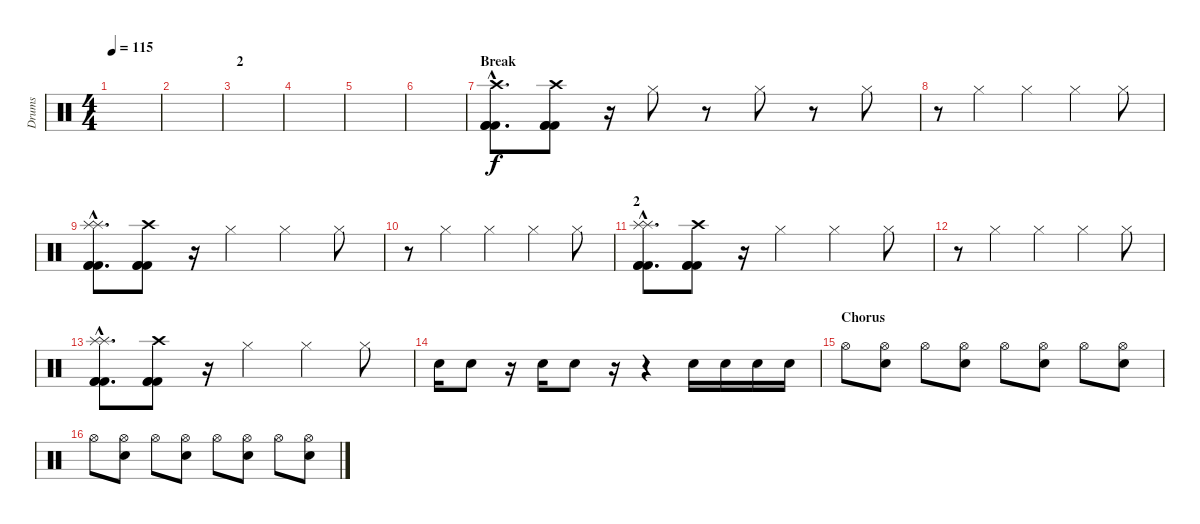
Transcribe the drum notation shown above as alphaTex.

\track ("Drums" "Drums") {instrument percussion}
\staff {score}
\articulation defaults
\ts (4 4)
\tempo 115
\clef neutral
\ks c
|
|
\section ("" "2")
|
|
|
|
\section ("" "Break")
("Crash high (hit)"{hac} "Kick (hit) 2"{hac} "Kick (hit) 2"{hac} "Kick (hit) 2"{hac}).8{d} ("Crash high (hit)" "Kick (hit) 2" "Kick (hit) 2" "Kick (hit) 2").8 r.16 "Hi-Hat (closed)".8 r.8 "Hi-Hat (closed)".8 r.8 "Hi-Hat (closed)".8 |
r.8 "Hi-Hat (closed)".4 "Hi-Hat (closed)".4 "Hi-Hat (closed)".4 "Hi-Hat (closed)".8 |
("Splash (hit)"{hac} "Splash (hit)"{hac} "Kick (hit) 2"{hac} "Kick (hit) 2"{hac} "Kick (hit) 2"{hac}).8{d} ("Crash high (hit)" "Kick (hit) 2" "Kick (hit) 2" "Kick (hit) 2").8 r.16 "Hi-Hat (closed)".4 "Hi-Hat (closed)".4 "Hi-Hat (closed)".8 |
r.8 "Hi-Hat (closed)".4 "Hi-Hat (closed)".4 "Hi-Hat (closed)".4 "Hi-Hat (closed)".8 |
\section ("" "2")
("Splash (hit)"{hac} "Splash (hit)"{hac} "Kick (hit) 2"{hac} "Kick (hit) 2"{hac} "Kick (hit) 2"{hac}).8{d} ("Crash high (hit)" "Kick (hit) 2" "Kick (hit) 2" "Kick (hit) 2").8 r.16 "Hi-Hat (closed)".4 "Hi-Hat (closed)".4 "Hi-Hat (closed)".8 |
r.8 "Hi-Hat (closed)".4 "Hi-Hat (closed)".4 "Hi-Hat (closed)".4 "Hi-Hat (closed)".8 |
("Splash (hit)"{hac} "Splash (hit)"{hac} "Kick (hit) 2"{hac} "Kick (hit) 2"{hac} "Kick (hit) 2"{hac}).8{d} ("Crash high (hit)" "Kick (hit) 2" "Kick (hit) 2" "Kick (hit) 2").8 r.16 "Hi-Hat (closed)".4 "Hi-Hat (closed)".4 "Hi-Hat (closed)".8 |
"Snare (hit) 2".16 "Snare (hit) 2".8 r.16 "Snare (hit) 2".16 "Snare (hit) 2".8 r.16 r.4 "Snare (hit) 2".16 "Snare (hit) 2".16 "Snare (hit) 2".16 "Snare (hit) 2".16 |
\section ("" "Chorus")
"Hi-Hat (open)".8 ("Hi-Hat (open)" "Snare (hit) 2").8 "Hi-Hat (open)".8 ("Hi-Hat (open)" "Snare (hit) 2").8 "Hi-Hat (open)".8 ("Hi-Hat (open)" "Snare (hit) 2").8 "Hi-Hat (open)".8 ("Hi-Hat (open)" "Snare (hit) 2").8 |
"Hi-Hat (open)".8 ("Hi-Hat (open)" "Snare (hit) 2").8 "Hi-Hat (open)".8 ("Hi-Hat (open)" "Snare (hit) 2").8 "Hi-Hat (open)".8 ("Hi-Hat (open)" "Snare (hit) 2").8 "Hi-Hat (open)".8 ("Hi-Hat (open)" "Snare (hit) 2").8
